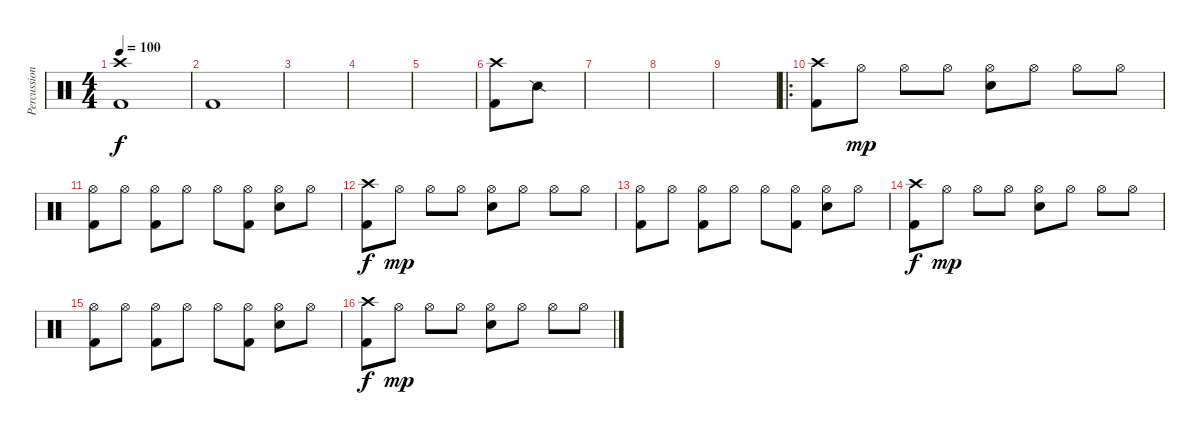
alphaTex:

\track ("Percussion" "Percussion") {instrument percussion}
\staff {score}
\articulation defaults
\ts (4 4)
\tempo 100
\clef neutral
\ks c
("Crash high (hit)" "Kick (hit) 2").1{dy f} |
"Kick (hit) 2".1 |
|
|
|
("Crash high (hit)" "Kick (hit) 2").8 "Snare (side stick) 2".8 |
|
|
|
\ro
("Crash high (hit)" "Kick (hit) 2").8 "Hi-Hat (open)".8{dy mp} "Hi-Hat (open)".8 "Hi-Hat (open)".8 ("Hi-Hat (open)" "Electric Snare (hit)").8 "Hi-Hat (open)".8 "Hi-Hat (open)".8 "Hi-Hat (open)".8 |
("Hi-Hat (open)" "Kick (hit) 2").8 "Hi-Hat (open)".8 ("Hi-Hat (open)" "Kick (hit) 2").8 "Hi-Hat (open)".8 "Hi-Hat (open)".8 ("Hi-Hat (open)" "Kick (hit) 2").8 ("Hi-Hat (open)" "Electric Snare (hit)").8 "Hi-Hat (open)".8 |
("Crash high (hit)" "Kick (hit) 2").8{dy f} "Hi-Hat (open)".8{dy mp} "Hi-Hat (open)".8 "Hi-Hat (open)".8 ("Hi-Hat (open)" "Electric Snare (hit)").8 "Hi-Hat (open)".8 "Hi-Hat (open)".8 "Hi-Hat (open)".8 |
("Hi-Hat (open)" "Kick (hit) 2").8 "Hi-Hat (open)".8 ("Hi-Hat (open)" "Kick (hit) 2").8 "Hi-Hat (open)".8 "Hi-Hat (open)".8 ("Hi-Hat (open)" "Kick (hit) 2").8 ("Hi-Hat (open)" "Electric Snare (hit)").8 "Hi-Hat (open)".8 |
("Crash high (hit)" "Kick (hit) 2").8{dy f} "Hi-Hat (open)".8{dy mp} "Hi-Hat (open)".8 "Hi-Hat (open)".8 ("Hi-Hat (open)" "Electric Snare (hit)").8 "Hi-Hat (open)".8 "Hi-Hat (open)".8 "Hi-Hat (open)".8 |
("Hi-Hat (open)" "Kick (hit) 2").8 "Hi-Hat (open)".8 ("Hi-Hat (open)" "Kick (hit) 2").8 "Hi-Hat (open)".8 "Hi-Hat (open)".8 ("Hi-Hat (open)" "Kick (hit) 2").8 ("Hi-Hat (open)" "Electric Snare (hit)").8 "Hi-Hat (open)".8 |
("Crash high (hit)" "Kick (hit) 2").8{dy f} "Hi-Hat (open)".8{dy mp} "Hi-Hat (open)".8 "Hi-Hat (open)".8 ("Hi-Hat (open)" "Electric Snare (hit)").8 "Hi-Hat (open)".8 "Hi-Hat (open)".8 "Hi-Hat (open)".8
